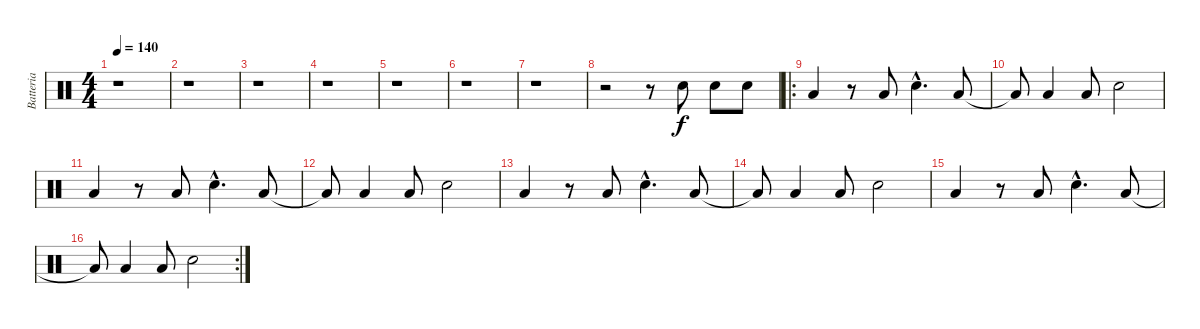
\track ("Batteria" "Batteria") {instrument percussion}
\staff {score}
\articulation defaults
\ts (4 4)
\tempo 140
\clef neutral
\ks c
r.1{dy f} |
\section ("" "")
r.1 |
r.1 |
r.1 |
r.1 |
r.1 |
r.1 |
r.2 r.8 "Snare (hit) 2".8 "Snare (hit) 2".8 "Snare (hit) 2".8 |
\ro "Low Floor Tom (hit)".4
r.8 "Low Floor Tom (hit)".8 "Snare (hit) 2"{hac}.4{d} "Low Floor Tom (hit)".8 |
"Low Floor Tom (hit)"{t}.8 "Low Floor Tom (hit)".4 "Low Floor Tom (hit)".8 "Snare (hit) 2".2 |
"Low Floor Tom (hit)".4 r.8 "Low Floor Tom (hit)".8 "Snare (hit) 2"{hac}.4{d} "Low Floor Tom (hit)".8 |
"Low Floor Tom (hit)"{t}.8 "Low Floor Tom (hit)".4 "Low Floor Tom (hit)".8 "Snare (hit) 2".2 |
"Low Floor Tom (hit)".4 r.8 "Low Floor Tom (hit)".8 "Snare (hit) 2"{hac}.4{d} "Low Floor Tom (hit)".8 |
"Low Floor Tom (hit)"{t}.8 "Low Floor Tom (hit)".4 "Low Floor Tom (hit)".8 "Snare (hit) 2".2 |
"Low Floor Tom (hit)".4 r.8 "Low Floor Tom (hit)".8 "Snare (hit) 2"{hac}.4{d} "Low Floor Tom (hit)".8 |
\rc 2 "Low Floor Tom (hit)"{t}.8 "Low Floor Tom (hit)".4 "Low Floor Tom (hit)".8 "Snare (hit) 2".2
